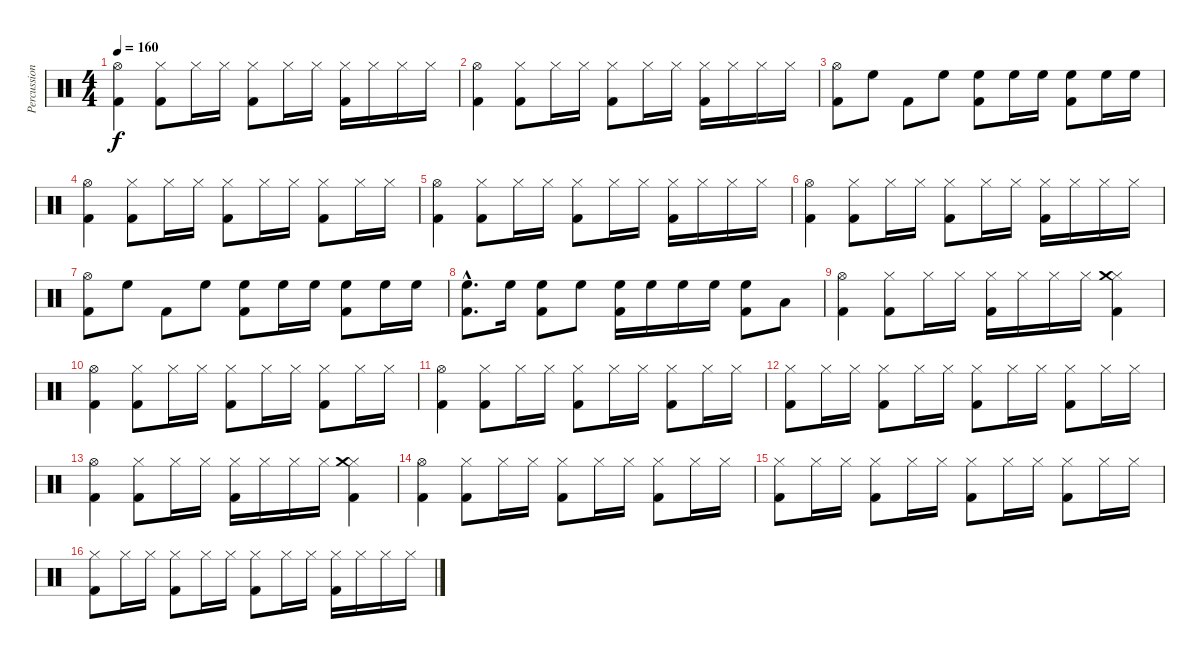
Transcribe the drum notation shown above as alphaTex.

\track ("Percussion" "Percussion") {instrument percussion}
\staff {score}
\articulation defaults
\ts (4 4)
\tempo 160
\clef neutral
\ks c
("Hi-Hat (open)" "Kick (hit) 2").4{dy f} ("Hi-Hat (closed)" "Kick (hit) 2").8 "Hi-Hat (closed)".16 "Hi-Hat (closed)".16 ("Hi-Hat (closed)" "Kick (hit) 2").8 "Hi-Hat (closed)".16 "Hi-Hat (closed)".16 ("Hi-Hat (closed)" "Kick (hit) 2").16 "Hi-Hat (closed)".16 "Hi-Hat (closed)".16 "Hi-Hat (closed)".16 |
("Hi-Hat (open)" "Kick (hit) 2").4 ("Hi-Hat (closed)" "Kick (hit) 2").8 "Hi-Hat (closed)".16 "Hi-Hat (closed)".16 ("Hi-Hat (closed)" "Kick (hit) 2").8 "Hi-Hat (closed)".16 "Hi-Hat (closed)".16 ("Hi-Hat (closed)" "Kick (hit) 2").16 "Hi-Hat (closed)".16 "Hi-Hat (closed)".16 "Hi-Hat (closed)".16 |
("Hi-Hat (open)" "Kick (hit) 2").8 "High Floor Tom (hit)".8 "Kick (hit) 2".8 "High Floor Tom (hit)".8 ("High Floor Tom (hit)" "Kick (hit) 2").8 "High Floor Tom (hit)".16 "High Floor Tom (hit)".16 ("High Floor Tom (hit)" "Kick (hit) 2").8 "High Floor Tom (hit)".16 "High Floor Tom (hit)".16 |
("Hi-Hat (open)" "Kick (hit) 2").4 ("Hi-Hat (closed)" "Kick (hit) 2").8 "Hi-Hat (closed)".16 "Hi-Hat (closed)".16 ("Hi-Hat (closed)" "Kick (hit) 2").8 "Hi-Hat (closed)".16 "Hi-Hat (closed)".16 ("Hi-Hat (closed)" "Kick (hit) 2").8 "Hi-Hat (closed)".16 "Hi-Hat (closed)".16 |
("Hi-Hat (open)" "Kick (hit) 2").4 ("Hi-Hat (closed)" "Kick (hit) 2").8 "Hi-Hat (closed)".16 "Hi-Hat (closed)".16 ("Hi-Hat (closed)" "Kick (hit) 2").8 "Hi-Hat (closed)".16 "Hi-Hat (closed)".16 ("Hi-Hat (closed)" "Kick (hit) 2").16 "Hi-Hat (closed)".16 "Hi-Hat (closed)".16 "Hi-Hat (closed)".16 |
("Hi-Hat (open)" "Kick (hit) 2").4 ("Hi-Hat (closed)" "Kick (hit) 2").8 "Hi-Hat (closed)".16 "Hi-Hat (closed)".16 ("Hi-Hat (closed)" "Kick (hit) 2").8 "Hi-Hat (closed)".16 "Hi-Hat (closed)".16 ("Hi-Hat (closed)" "Kick (hit) 2").16 "Hi-Hat (closed)".16 "Hi-Hat (closed)".16 "Hi-Hat (closed)".16 |
("Hi-Hat (open)" "Kick (hit) 2").8 "High Floor Tom (hit)".8 "Kick (hit) 2".8 "High Floor Tom (hit)".8 ("High Floor Tom (hit)" "Kick (hit) 2").8 "High Floor Tom (hit)".16 "High Floor Tom (hit)".16 ("High Floor Tom (hit)" "Kick (hit) 2").8 "High Floor Tom (hit)".16 "High Floor Tom (hit)".16 |
("High Floor Tom (hit)"{hac} "Kick (hit) 2"{hac}).8{d} "High Floor Tom (hit)".16 ("High Floor Tom (hit)" "Kick (hit) 2").8 "High Floor Tom (hit)".8 ("High Floor Tom (hit)" "Kick (hit) 2").16 "High Floor Tom (hit)".16 "High Floor Tom (hit)".16 "High Floor Tom (hit)".16 ("High Floor Tom (hit)" "Kick (hit) 2").8 "Low Tom (hit)".8 |
("Hi-Hat (open)" "Kick (hit) 2").4 ("Hi-Hat (closed)" "Kick (hit) 2").8 "Hi-Hat (closed)".16 "Hi-Hat (closed)".16 ("Hi-Hat (closed)" "Kick (hit) 2").16 "Hi-Hat (closed)".16 "Hi-Hat (closed)".16 "Hi-Hat (closed)".16 ("Hi-Hat (closed)" "Crash medium (hit)" "Kick (hit) 2").4 |
("Hi-Hat (open)" "Kick (hit) 2").4 ("Hi-Hat (closed)" "Kick (hit) 2").8 "Hi-Hat (closed)".16 "Hi-Hat (closed)".16 ("Hi-Hat (closed)" "Kick (hit) 2").8 "Hi-Hat (closed)".16 "Hi-Hat (closed)".16 ("Hi-Hat (closed)" "Kick (hit) 2").8 "Hi-Hat (closed)".16 "Hi-Hat (closed)".16 |
("Hi-Hat (open)" "Kick (hit) 2").4 ("Hi-Hat (closed)" "Kick (hit) 2").8 "Hi-Hat (closed)".16 "Hi-Hat (closed)".16 ("Hi-Hat (closed)" "Kick (hit) 2").8 "Hi-Hat (closed)".16 "Hi-Hat (closed)".16 ("Hi-Hat (closed)" "Kick (hit) 2").8 "Hi-Hat (closed)".16 "Hi-Hat (closed)".16 |
("Hi-Hat (closed)" "Kick (hit) 2").8 "Hi-Hat (closed)".16 "Hi-Hat (closed)".16 ("Hi-Hat (closed)" "Kick (hit) 2").8 "Hi-Hat (closed)".16 "Hi-Hat (closed)".16 ("Hi-Hat (closed)" "Kick (hit) 2").8 "Hi-Hat (closed)".16 "Hi-Hat (closed)".16 ("Hi-Hat (closed)" "Kick (hit) 2").8 "Hi-Hat (closed)".16 "Hi-Hat (closed)".16 |
("Hi-Hat (open)" "Kick (hit) 2").4 ("Hi-Hat (closed)" "Kick (hit) 2").8 "Hi-Hat (closed)".16 "Hi-Hat (closed)".16 ("Hi-Hat (closed)" "Kick (hit) 2").16 "Hi-Hat (closed)".16 "Hi-Hat (closed)".16 "Hi-Hat (closed)".16 ("Hi-Hat (closed)" "Crash medium (hit)" "Kick (hit) 2").4 |
("Hi-Hat (open)" "Kick (hit) 2").4 ("Hi-Hat (closed)" "Kick (hit) 2").8 "Hi-Hat (closed)".16 "Hi-Hat (closed)".16 ("Hi-Hat (closed)" "Kick (hit) 2").8 "Hi-Hat (closed)".16 "Hi-Hat (closed)".16 ("Hi-Hat (closed)" "Kick (hit) 2").8 "Hi-Hat (closed)".16 "Hi-Hat (closed)".16 |
("Hi-Hat (closed)" "Kick (hit) 2").8 "Hi-Hat (closed)".16 "Hi-Hat (closed)".16 ("Hi-Hat (closed)" "Kick (hit) 2").8 "Hi-Hat (closed)".16 "Hi-Hat (closed)".16 ("Hi-Hat (closed)" "Kick (hit) 2").8 "Hi-Hat (closed)".16 "Hi-Hat (closed)".16 ("Hi-Hat (closed)" "Kick (hit) 2").8 "Hi-Hat (closed)".16 "Hi-Hat (closed)".16 |
("Hi-Hat (closed)" "Kick (hit) 2").8 "Hi-Hat (closed)".16 "Hi-Hat (closed)".16 ("Hi-Hat (closed)" "Kick (hit) 2").8 "Hi-Hat (closed)".16 "Hi-Hat (closed)".16 ("Hi-Hat (closed)" "Kick (hit) 2").8 "Hi-Hat (closed)".16 "Hi-Hat (closed)".16 ("Hi-Hat (closed)" "Kick (hit) 2").16 "Hi-Hat (closed)".16 "Hi-Hat (closed)".16 "Hi-Hat (closed)".16
